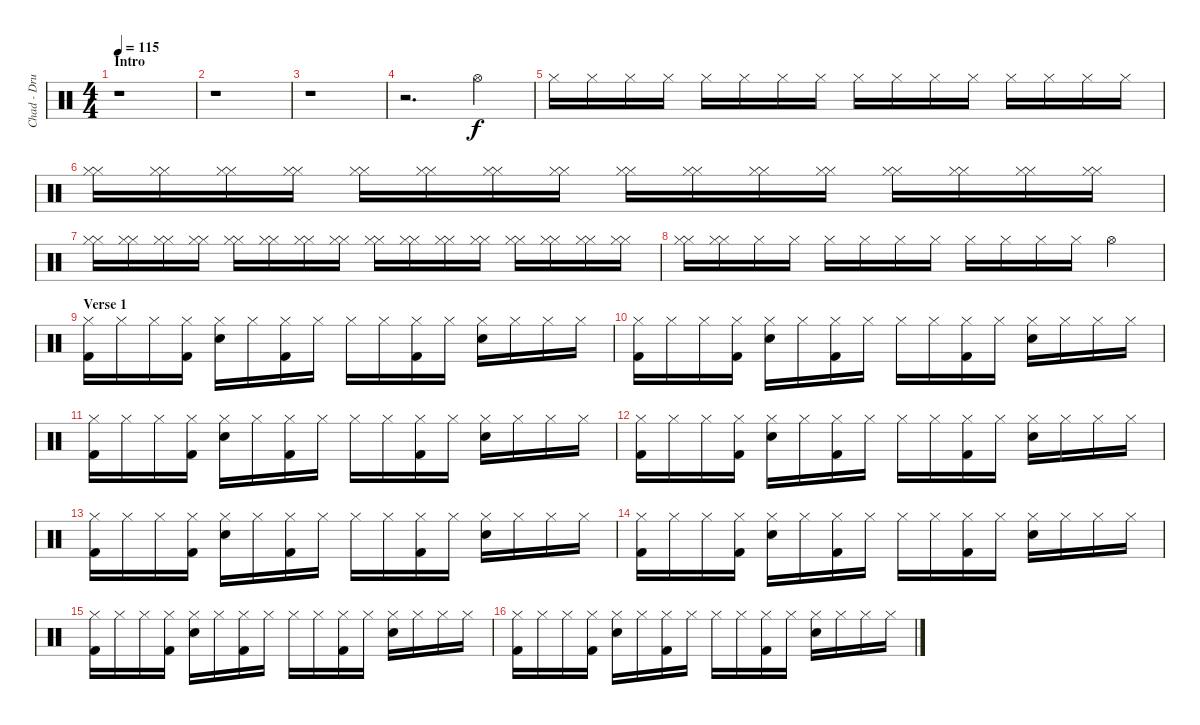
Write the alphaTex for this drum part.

\track ("Chad - Drums" "Chad - Dru") {instrument percussion}
\staff {score}
\articulation defaults
\ts (4 4)
\section ("" "Intro")
\tempo 115
\clef neutral
\ks c
r.1{dy f} |
r.1 |
r.1 |
r.2{d} "Hi-Hat (open)".4 |
"Hi-Hat (closed)".16 "Hi-Hat (closed)".16 "Hi-Hat (closed)".16 "Hi-Hat (closed)".16 "Hi-Hat (closed)".16 "Hi-Hat (closed)".16 "Hi-Hat (closed)".16 "Hi-Hat (closed)".16 "Hi-Hat (closed)".16 "Hi-Hat (closed)".16 "Hi-Hat (closed)".16 "Hi-Hat (closed)".16 "Hi-Hat (closed)".16 "Hi-Hat (closed)".16 "Hi-Hat (closed)".16 "Hi-Hat (closed)".16 |
("Hi-Hat (closed)" "Hi-Hat (closed)").16 ("Hi-Hat (closed)" "Hi-Hat (closed)").16 ("Hi-Hat (closed)" "Hi-Hat (closed)").16 ("Hi-Hat (closed)" "Hi-Hat (closed)").16 ("Hi-Hat (closed)" "Hi-Hat (closed)").16 ("Hi-Hat (closed)" "Hi-Hat (closed)").16 ("Hi-Hat (closed)" "Hi-Hat (closed)").16 ("Hi-Hat (closed)" "Hi-Hat (closed)").16 ("Hi-Hat (closed)" "Hi-Hat (closed)").16 ("Hi-Hat (closed)" "Hi-Hat (closed)").16 ("Hi-Hat (closed)" "Hi-Hat (closed)").16 ("Hi-Hat (closed)" "Hi-Hat (closed)").16 ("Hi-Hat (closed)" "Hi-Hat (closed)").16 ("Hi-Hat (closed)" "Hi-Hat (closed)").16 ("Hi-Hat (closed)" "Hi-Hat (closed)").16 ("Hi-Hat (closed)" "Hi-Hat (closed)").16 |
("Hi-Hat (closed)" "Hi-Hat (closed)").16 ("Hi-Hat (closed)" "Hi-Hat (closed)").16 ("Hi-Hat (closed)" "Hi-Hat (closed)").16 ("Hi-Hat (closed)" "Hi-Hat (closed)").16 ("Hi-Hat (closed)" "Hi-Hat (closed)").16 ("Hi-Hat (closed)" "Hi-Hat (closed)").16 ("Hi-Hat (closed)" "Hi-Hat (closed)").16 ("Hi-Hat (closed)" "Hi-Hat (closed)").16 ("Hi-Hat (closed)" "Hi-Hat (closed)").16 ("Hi-Hat (closed)" "Hi-Hat (closed)").16 ("Hi-Hat (closed)" "Hi-Hat (closed)").16 ("Hi-Hat (closed)" "Hi-Hat (closed)").16 ("Hi-Hat (closed)" "Hi-Hat (closed)").16 ("Hi-Hat (closed)" "Hi-Hat (closed)").16 ("Hi-Hat (closed)" "Hi-Hat (closed)").16 ("Hi-Hat (closed)" "Hi-Hat (closed)").16 |
("Hi-Hat (closed)" "Hi-Hat (closed)").16 ("Hi-Hat (closed)" "Hi-Hat (closed)").16 "Hi-Hat (closed)".16 "Hi-Hat (closed)".16 "Hi-Hat (closed)".16 "Hi-Hat (closed)".16 "Hi-Hat (closed)".16 "Hi-Hat (closed)".16 "Hi-Hat (closed)".16 "Hi-Hat (closed)".16 "Hi-Hat (closed)".16 "Hi-Hat (closed)".16 "Hi-Hat (open)".4 |
\section ("" "Verse 1")
("Hi-Hat (closed)" "Kick (hit) 2").16 "Hi-Hat (closed)".16 "Hi-Hat (closed)".16 ("Hi-Hat (closed)" "Kick (hit) 2").16 ("Hi-Hat (closed)" "Electric Snare (hit)").16 "Hi-Hat (closed)".16 ("Hi-Hat (closed)" "Kick (hit) 2").16 "Hi-Hat (closed)".16 "Hi-Hat (closed)".16 "Hi-Hat (closed)".16 ("Hi-Hat (closed)" "Kick (hit) 2").16 "Hi-Hat (closed)".16 ("Hi-Hat (closed)" "Electric Snare (hit)").16 "Hi-Hat (closed)".16 "Hi-Hat (closed)".16 "Hi-Hat (closed)".16 |
("Hi-Hat (closed)" "Kick (hit) 2").16 "Hi-Hat (closed)".16 "Hi-Hat (closed)".16 ("Hi-Hat (closed)" "Kick (hit) 2").16 ("Hi-Hat (closed)" "Electric Snare (hit)").16 "Hi-Hat (closed)".16 ("Hi-Hat (closed)" "Kick (hit) 2").16 "Hi-Hat (closed)".16 "Hi-Hat (closed)".16 "Hi-Hat (closed)".16 ("Hi-Hat (closed)" "Kick (hit) 2").16 "Hi-Hat (closed)".16 ("Hi-Hat (closed)" "Electric Snare (hit)").16 "Hi-Hat (closed)".16 "Hi-Hat (closed)".16 "Hi-Hat (closed)".16 |
("Hi-Hat (closed)" "Kick (hit) 2").16 "Hi-Hat (closed)".16 "Hi-Hat (closed)".16 ("Hi-Hat (closed)" "Kick (hit) 2").16 ("Hi-Hat (closed)" "Electric Snare (hit)").16 "Hi-Hat (closed)".16 ("Hi-Hat (closed)" "Kick (hit) 2").16 "Hi-Hat (closed)".16 "Hi-Hat (closed)".16 "Hi-Hat (closed)".16 ("Hi-Hat (closed)" "Kick (hit) 2").16 "Hi-Hat (closed)".16 ("Hi-Hat (closed)" "Electric Snare (hit)").16 "Hi-Hat (closed)".16 "Hi-Hat (closed)".16 "Hi-Hat (closed)".16 |
("Hi-Hat (closed)" "Kick (hit) 2").16 "Hi-Hat (closed)".16 "Hi-Hat (closed)".16 ("Hi-Hat (closed)" "Kick (hit) 2").16 ("Hi-Hat (closed)" "Electric Snare (hit)").16 "Hi-Hat (closed)".16 ("Hi-Hat (closed)" "Kick (hit) 2").16 "Hi-Hat (closed)".16 "Hi-Hat (closed)".16 "Hi-Hat (closed)".16 ("Hi-Hat (closed)" "Kick (hit) 2").16 "Hi-Hat (closed)".16 ("Hi-Hat (closed)" "Electric Snare (hit)").16 "Hi-Hat (closed)".16 "Hi-Hat (closed)".16 "Hi-Hat (closed)".16 |
("Hi-Hat (closed)" "Kick (hit) 2").16 "Hi-Hat (closed)".16 "Hi-Hat (closed)".16 ("Hi-Hat (closed)" "Kick (hit) 2").16 ("Hi-Hat (closed)" "Electric Snare (hit)").16 "Hi-Hat (closed)".16 ("Hi-Hat (closed)" "Kick (hit) 2").16 "Hi-Hat (closed)".16 "Hi-Hat (closed)".16 "Hi-Hat (closed)".16 ("Hi-Hat (closed)" "Kick (hit) 2").16 "Hi-Hat (closed)".16 ("Hi-Hat (closed)" "Electric Snare (hit)").16 "Hi-Hat (closed)".16 "Hi-Hat (closed)".16 "Hi-Hat (closed)".16 |
("Hi-Hat (closed)" "Kick (hit) 2").16 "Hi-Hat (closed)".16 "Hi-Hat (closed)".16 ("Hi-Hat (closed)" "Kick (hit) 2").16 ("Hi-Hat (closed)" "Electric Snare (hit)").16 "Hi-Hat (closed)".16 ("Hi-Hat (closed)" "Kick (hit) 2").16 "Hi-Hat (closed)".16 "Hi-Hat (closed)".16 "Hi-Hat (closed)".16 ("Hi-Hat (closed)" "Kick (hit) 2").16 "Hi-Hat (closed)".16 ("Hi-Hat (closed)" "Electric Snare (hit)").16 "Hi-Hat (closed)".16 "Hi-Hat (closed)".16 "Hi-Hat (closed)".16 |
("Hi-Hat (closed)" "Kick (hit) 2").16 "Hi-Hat (closed)".16 "Hi-Hat (closed)".16 ("Hi-Hat (closed)" "Kick (hit) 2").16 ("Hi-Hat (closed)" "Electric Snare (hit)").16 "Hi-Hat (closed)".16 ("Hi-Hat (closed)" "Kick (hit) 2").16 "Hi-Hat (closed)".16 "Hi-Hat (closed)".16 "Hi-Hat (closed)".16 ("Hi-Hat (closed)" "Kick (hit) 2").16 "Hi-Hat (closed)".16 ("Hi-Hat (closed)" "Electric Snare (hit)").16 "Hi-Hat (closed)".16 "Hi-Hat (closed)".16 "Hi-Hat (closed)".16 |
("Hi-Hat (closed)" "Kick (hit) 2").16 "Hi-Hat (closed)".16 "Hi-Hat (closed)".16 ("Hi-Hat (closed)" "Kick (hit) 2").16 ("Hi-Hat (closed)" "Electric Snare (hit)").16 "Hi-Hat (closed)".16 ("Hi-Hat (closed)" "Kick (hit) 2").16 "Hi-Hat (closed)".16 "Hi-Hat (closed)".16 "Hi-Hat (closed)".16 ("Hi-Hat (closed)" "Kick (hit) 2").16 "Hi-Hat (closed)".16 ("Hi-Hat (closed)" "Electric Snare (hit)").16 "Hi-Hat (closed)".16 "Hi-Hat (closed)".16 "Hi-Hat (closed)".16
